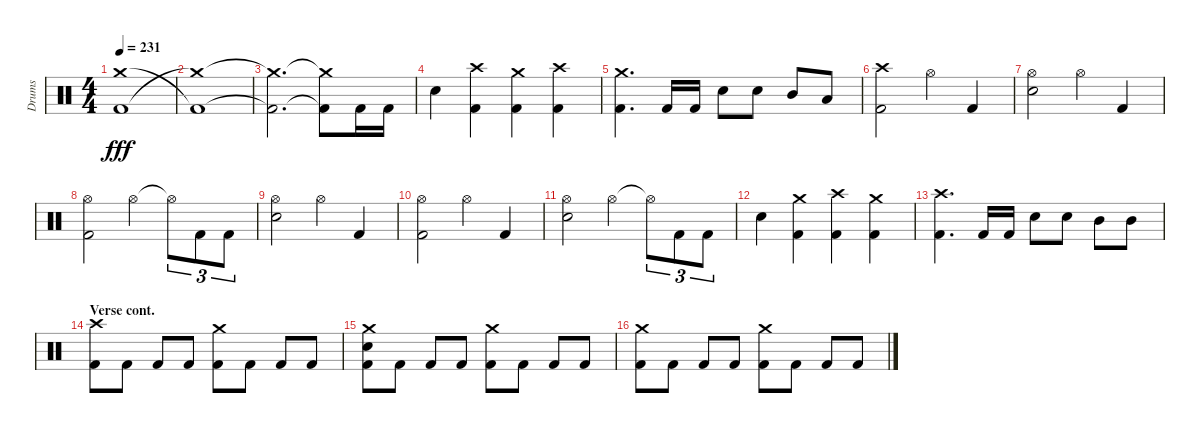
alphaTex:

\track ("Drums" "Drums") {instrument percussion}
\staff {score}
\articulation defaults
\ts (4 4)
\tempo 231
\clef neutral
\ks aminor
("Crash medium (hit)"{t} "Kick (hit) 2"{t}).1{dy fff} |
("Kick (hit) 2"{t} "Crash medium (hit)"{t}).1 |
("Kick (hit) 2"{t} "Crash medium (hit)"{t}).2{d} ("Kick (hit) 2"{t} "Crash medium (hit)"{t}).8 "Kick (hit) 2".16 "Kick (hit) 2".16 |
"Snare (hit) 2".4 ("Crash high (hit)" "Kick (hit) 2").4 ("Kick (hit) 2" "Crash medium (hit)").4 ("Kick (hit) 2" "Crash high (hit)").4 |
("Kick (hit) 2" "Crash medium (hit)").4{d} "Kick (hit) 2".16 "Kick (hit) 2".16 "Snare (hit) 2".8 "Snare (hit) 2".8 "Mid Tom (hit)".8 "Low Tom (hit)".8 |
("Kick (hit) 2" "Crash high (hit)").2 "Hi-Hat (open)".4 "Kick (hit) 2".4 |
("Snare (hit) 2" "Hi-Hat (open)").2 "Hi-Hat (open)".4 "Kick (hit) 2".4 |
("Kick (hit) 2" "Hi-Hat (open)").2 "Hi-Hat (open)".4 "Hi-Hat (open)"{t}.8{tu (3 2)} "Kick (hit) 2".8{tu (3 2)} "Kick (hit) 2".8{tu (3 2)} |
("Snare (hit) 2" "Hi-Hat (open)").2 "Hi-Hat (open)".4 "Kick (hit) 2".4 |
("Kick (hit) 2" "Hi-Hat (open)").2 "Hi-Hat (open)".4 "Kick (hit) 2".4 |
("Snare (hit) 2" "Hi-Hat (open)").2 "Hi-Hat (open)".4 "Hi-Hat (open)"{t}.8{tu (3 2)} "Kick (hit) 2".8{tu (3 2)} "Kick (hit) 2".8{tu (3 2)} |
"Snare (hit) 2".4 ("Crash medium (hit)" "Kick (hit) 2").4 ("Kick (hit) 2" "Crash high (hit)").4 ("Kick (hit) 2" "Crash medium (hit)").4 |
("Crash high (hit)" "Kick (hit) 2").4{d} "Kick (hit) 2".16 "Kick (hit) 2".16 "Snare (hit) 2".8 "Snare (hit) 2".8 "Mid Tom (hit)".8 "Mid Tom (hit)".8 |
\section ("" "Verse cont.")
("Kick (hit) 2" "Crash high (hit)").8 "Kick (hit) 2".8 "Kick (hit) 2".8 "Kick (hit) 2".8 ("Kick (hit) 2" "Crash medium (hit)").8 "Kick (hit) 2".8 "Kick (hit) 2".8 "Kick (hit) 2".8 |
("Crash medium (hit)" "Snare (hit) 2" "Kick (hit) 2").8 "Kick (hit) 2".8 "Kick (hit) 2".8 "Kick (hit) 2".8 ("Crash medium (hit)" "Kick (hit) 2").8 "Kick (hit) 2".8 "Kick (hit) 2".8 "Kick (hit) 2".8 |
("Crash medium (hit)" "Kick (hit) 2").8 "Kick (hit) 2".8 "Kick (hit) 2".8 "Kick (hit) 2".8 ("Kick (hit) 2" "Crash medium (hit)").8 "Kick (hit) 2".8 "Kick (hit) 2".8 "Kick (hit) 2".8
